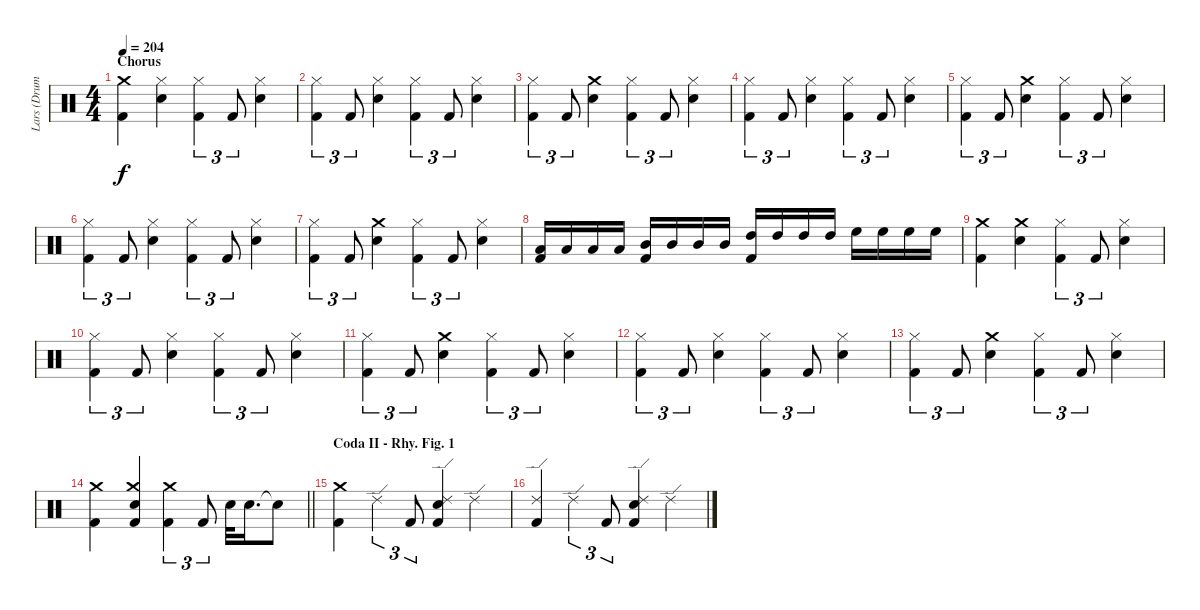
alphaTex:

\track ("Lars (Drums)" "Lars (Drum") {instrument percussion}
\staff {score}
\articulation defaults
\ts (4 4)
\section ("" "Chorus")
\tempo 204
\clef neutral
\ks c
("Kick (hit) 2" "Crash medium (hit)").4{dy f} ("Hi-Hat (closed)" "Snare (hit) 2").4 ("Hi-Hat (closed)" "Kick (hit) 2").4{tu (3 2)} "Kick (hit) 2".8{tu (3 2)} ("Snare (hit) 2" "Hi-Hat (closed)").4 |
("Kick (hit) 2" "Hi-Hat (closed)").4{tu (3 2)} "Kick (hit) 2".8{tu (3 2)} ("Snare (hit) 2" "Hi-Hat (closed)").4 ("Kick (hit) 2" "Hi-Hat (closed)").4{tu (3 2)} "Kick (hit) 2".8{tu (3 2)} ("Snare (hit) 2" "Hi-Hat (closed)").4 |
("Kick (hit) 2" "Hi-Hat (closed)").4{tu (3 2)} "Kick (hit) 2".8{tu (3 2)} ("Crash medium (hit)" "Snare (hit) 2").4 ("Kick (hit) 2" "Hi-Hat (closed)").4{tu (3 2)} "Kick (hit) 2".8{tu (3 2)} ("Snare (hit) 2" "Hi-Hat (closed)").4 |
("Kick (hit) 2" "Hi-Hat (closed)").4{tu (3 2)} "Kick (hit) 2".8{tu (3 2)} ("Snare (hit) 2" "Hi-Hat (closed)").4 ("Kick (hit) 2" "Hi-Hat (closed)").4{tu (3 2)} "Kick (hit) 2".8{tu (3 2)} ("Snare (hit) 2" "Hi-Hat (closed)").4 |
("Kick (hit) 2" "Hi-Hat (closed)").4{tu (3 2)} "Kick (hit) 2".8{tu (3 2)} ("Crash medium (hit)" "Snare (hit) 2").4 ("Kick (hit) 2" "Hi-Hat (closed)").4{tu (3 2)} "Kick (hit) 2".8{tu (3 2)} ("Snare (hit) 2" "Hi-Hat (closed)").4 |
("Kick (hit) 2" "Hi-Hat (closed)").4{tu (3 2)} "Kick (hit) 2".8{tu (3 2)} ("Snare (hit) 2" "Hi-Hat (closed)").4 ("Kick (hit) 2" "Hi-Hat (closed)").4{tu (3 2)} "Kick (hit) 2".8{tu (3 2)} ("Snare (hit) 2" "Hi-Hat (closed)").4 |
("Kick (hit) 2" "Hi-Hat (closed)").4{tu (3 2)} "Kick (hit) 2".8{tu (3 2)} ("Crash medium (hit)" "Snare (hit) 2").4 ("Kick (hit) 2" "Hi-Hat (closed)").4{tu (3 2)} "Kick (hit) 2".8{tu (3 2)} ("Snare (hit) 2" "Hi-Hat (closed)").4 |
("Low Tom (hit)" "Kick (hit) 2").16 "Low Tom (hit)".16 "Low Tom (hit)".16 "Low Tom (hit)".16 ("Mid Tom (hit)" "Kick (hit) 2").16 "Mid Tom (hit)".16 "Mid Tom (hit)".16 "Mid Tom (hit)".16 ("High Tom (hit)" "Kick (hit) 2").16 "High Tom (hit)".16 "High Tom (hit)".16 "High Tom (hit)".16 "High Floor Tom (hit)".16 "High Floor Tom (hit)".16 "High Floor Tom (hit)".16 "High Floor Tom (hit)".16 |
("Kick (hit) 2" "Crash medium (hit)").4 ("Snare (hit) 2" "Crash medium (hit)").4 ("Hi-Hat (closed)" "Kick (hit) 2").4{tu (3 2)} "Kick (hit) 2".8{tu (3 2)} ("Hi-Hat (closed)" "Snare (hit) 2").4 |
("Kick (hit) 2" "Hi-Hat (closed)").4{tu (3 2)} "Kick (hit) 2".8{tu (3 2)} ("Snare (hit) 2" "Hi-Hat (closed)").4 ("Kick (hit) 2" "Hi-Hat (closed)").4{tu (3 2)} "Kick (hit) 2".8{tu (3 2)} ("Snare (hit) 2" "Hi-Hat (closed)").4 |
("Kick (hit) 2" "Hi-Hat (closed)").4{tu (3 2)} "Kick (hit) 2".8{tu (3 2)} ("Crash medium (hit)" "Snare (hit) 2").4 ("Kick (hit) 2" "Hi-Hat (closed)").4{tu (3 2)} "Kick (hit) 2".8{tu (3 2)} ("Snare (hit) 2" "Hi-Hat (closed)").4 |
("Kick (hit) 2" "Hi-Hat (closed)").4{tu (3 2)} "Kick (hit) 2".8{tu (3 2)} ("Snare (hit) 2" "Hi-Hat (closed)").4 ("Kick (hit) 2" "Hi-Hat (closed)").4{tu (3 2)} "Kick (hit) 2".8{tu (3 2)} ("Snare (hit) 2" "Hi-Hat (closed)").4 |
("Kick (hit) 2" "Hi-Hat (closed)").4{tu (3 2)} "Kick (hit) 2".8{tu (3 2)} ("Crash medium (hit)" "Snare (hit) 2").4 ("Kick (hit) 2" "Hi-Hat (closed)").4{tu (3 2)} "Kick (hit) 2".8{tu (3 2)} ("Snare (hit) 2" "Hi-Hat (closed)").4 |
\barLineRight lightlight
("Kick (hit) 2" "Crash medium (hit)").4 ("Kick (hit) 2" "Snare (hit) 2" "Crash medium (hit)").4 ("Kick (hit) 2" "Crash medium (hit)").4{tu (3 2)} "Kick (hit) 2".8{tu (3 2)} "Snare (hit) 2".32 "Snare (hit) 2".16{d} "Snare (hit)"{t}.8 |
\section ("" "Coda II - Rhy. Fig. 1")
("Kick (hit) 2" "Crash medium (hit)").4 "Ride (edge) 2".4{tu (3 2)} "Kick (hit) 2".8{tu (3 2)} ("Kick (hit) 2" "Snare (hit) 2" "Ride (edge) 2").4 "Ride (edge) 2".4 |
("Kick (hit) 2" "Ride (edge) 2").4 "Ride (edge) 2".4{tu (3 2)} "Kick (hit) 2".8{tu (3 2)} ("Kick (hit) 2" "Snare (hit) 2" "Ride (edge) 2").4 "Ride (edge) 2".4
